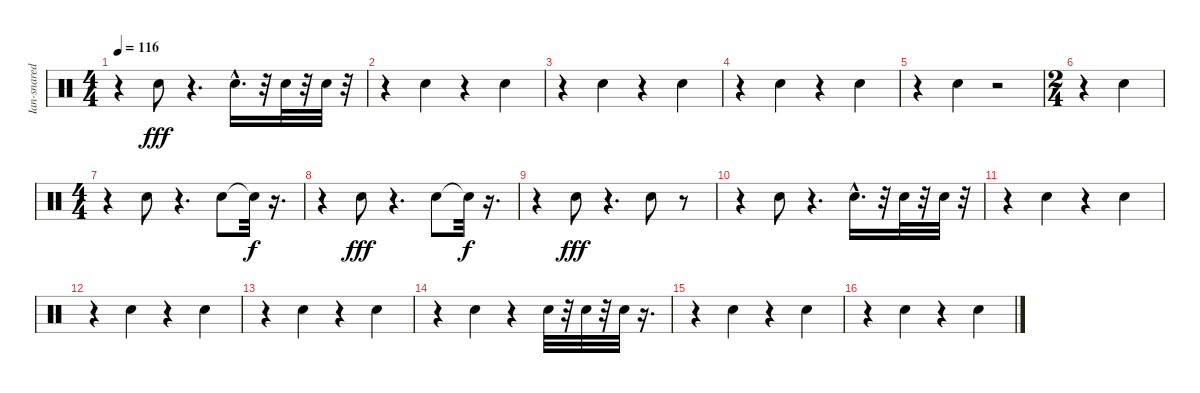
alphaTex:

\track ("Ian-snaredrum" "Ian-snared") {instrument percussion}
\staff {score}
\articulation defaults
\ts (4 4)
\tempo 116
\clef neutral
\ks c
r.4{dy fff} "Electric Snare (hit)".8 r.4{d} "Electric Snare (hit)"{hac}.16{d} r.32 "Electric Snare (hit)".32 r.32 "Electric Snare (hit)".32 r.32 |
r.4 "Electric Snare (hit)".4 r.4 "Electric Snare (hit)".4 |
r.4 "Electric Snare (hit)".4 r.4 "Electric Snare (hit)".4 |
r.4 "Electric Snare (hit)".4 r.4 "Electric Snare (hit)".4 |
r.4 "Electric Snare (hit)".4 r.2 |
\ts (2 4)
r.4 "Electric Snare (hit)".4 |
\ts (4 4)
r.4 "Electric Snare (hit)".8 r.4{d} "Electric Snare (hit)".8 "Snare (hit)"{t}.32{dy f} r.16{d} |
r.4 "Electric Snare (hit)".8{dy fff} r.4{d} "Electric Snare (hit)".8 "Snare (hit)"{t}.32{dy f} r.16{d} |
r.4 "Electric Snare (hit)".8{dy fff} r.4{d} "Electric Snare (hit)".8 r.8 |
r.4 "Electric Snare (hit)".8 r.4{d} "Electric Snare (hit)"{hac}.16{d} r.32 "Electric Snare (hit)".32 r.32 "Electric Snare (hit)".32 r.32 |
r.4 "Electric Snare (hit)".4 r.4 "Electric Snare (hit)".4 |
r.4 "Electric Snare (hit)".4 r.4 "Electric Snare (hit)".4 |
r.4 "Electric Snare (hit)".4 r.4 "Electric Snare (hit)".4 |
r.4 "Electric Snare (hit)".4 r.4 "Electric Snare (hit)".32 r.32 "Electric Snare (hit)".32 r.32 "Electric Snare (hit)".32 r.16{d} |
r.4 "Electric Snare (hit)".4 r.4 "Electric Snare (hit)".4 |
r.4 "Electric Snare (hit)".4 r.4 "Electric Snare (hit)".4
